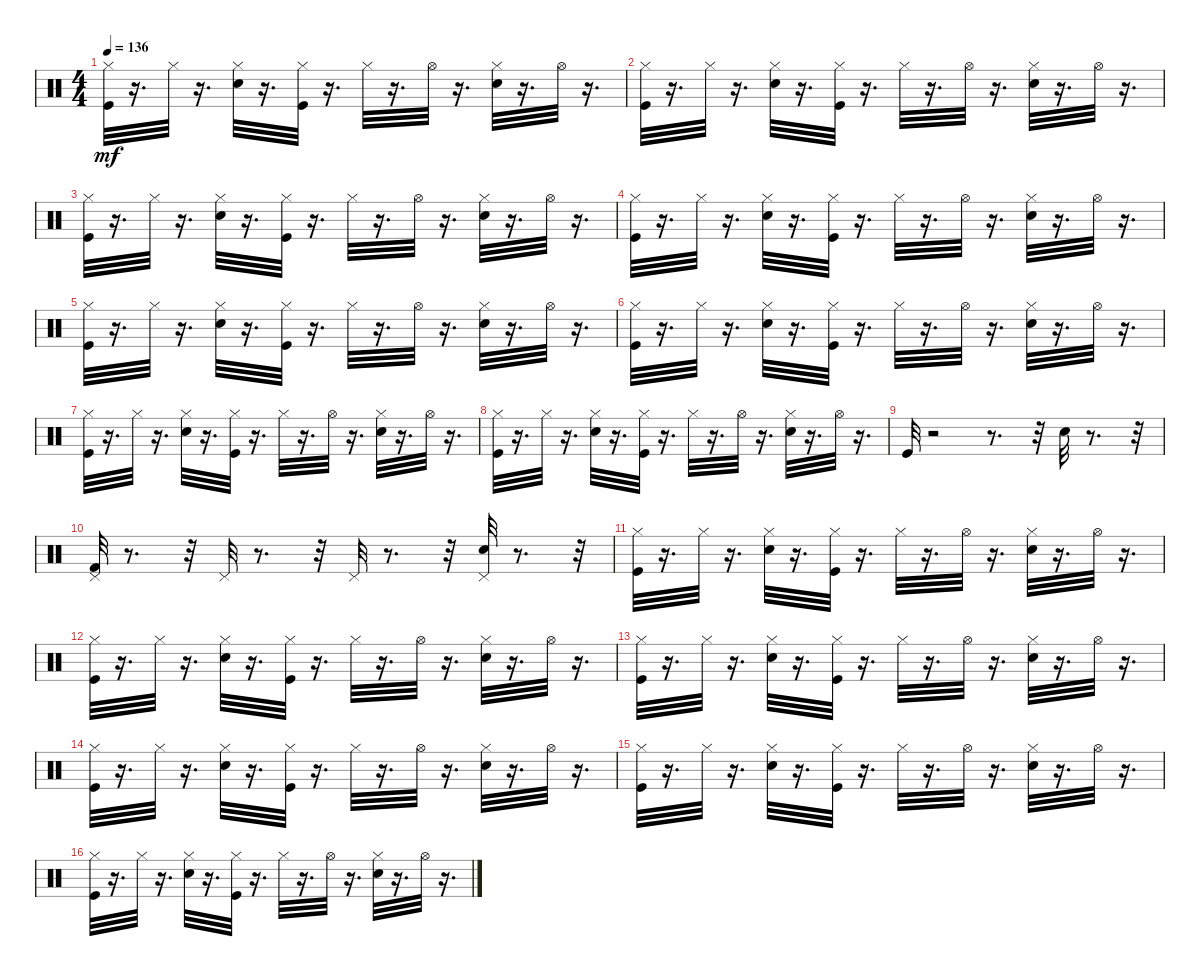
\track "" {instrument percussion}
\staff {score}
\articulation defaults
\ts (4 4)
\tempo 136
\clef neutral
\ks c
("Kick (hit)" "Hi-Hat (closed)").32{dy mf} r.16{d} "Hi-Hat (closed)".32 r.16{d} ("Snare (hit) 2" "Hi-Hat (closed)").32 r.16{d} ("Kick (hit)" "Hi-Hat (closed)").32 r.16{d} "Hi-Hat (closed)".32 r.16{d} "Hi-Hat (open)".32 r.16{d} ("Snare (hit) 2" "Hi-Hat (closed)").32 r.16{d} "Hi-Hat (open)".32 r.16{d} |
("Kick (hit)" "Hi-Hat (closed)").32 r.16{d} "Hi-Hat (closed)".32 r.16{d} ("Snare (hit) 2" "Hi-Hat (closed)").32 r.16{d} ("Kick (hit)" "Hi-Hat (closed)").32 r.16{d} "Hi-Hat (closed)".32 r.16{d} "Hi-Hat (open)".32 r.16{d} ("Snare (hit) 2" "Hi-Hat (closed)").32 r.16{d} "Hi-Hat (open)".32 r.16{d} |
("Kick (hit)" "Hi-Hat (closed)").32 r.16{d} "Hi-Hat (closed)".32 r.16{d} ("Snare (hit) 2" "Hi-Hat (closed)").32 r.16{d} ("Kick (hit)" "Hi-Hat (closed)").32 r.16{d} "Hi-Hat (closed)".32 r.16{d} "Hi-Hat (open)".32 r.16{d} ("Snare (hit) 2" "Hi-Hat (closed)").32 r.16{d} "Hi-Hat (open)".32 r.16{d} |
("Kick (hit)" "Hi-Hat (closed)").32 r.16{d} "Hi-Hat (closed)".32 r.16{d} ("Snare (hit) 2" "Hi-Hat (closed)").32 r.16{d} ("Kick (hit)" "Hi-Hat (closed)").32 r.16{d} "Hi-Hat (closed)".32 r.16{d} "Hi-Hat (open)".32 r.16{d} ("Snare (hit) 2" "Hi-Hat (closed)").32 r.16{d} "Hi-Hat (open)".32 r.16{d} |
("Kick (hit)" "Hi-Hat (closed)").32 r.16{d} "Hi-Hat (closed)".32 r.16{d} ("Snare (hit) 2" "Hi-Hat (closed)").32 r.16{d} ("Kick (hit)" "Hi-Hat (closed)").32 r.16{d} "Hi-Hat (closed)".32 r.16{d} "Hi-Hat (open)".32 r.16{d} ("Snare (hit) 2" "Hi-Hat (closed)").32 r.16{d} "Hi-Hat (open)".32 r.16{d} |
("Kick (hit)" "Hi-Hat (closed)").32 r.16{d} "Hi-Hat (closed)".32 r.16{d} ("Snare (hit) 2" "Hi-Hat (closed)").32 r.16{d} ("Kick (hit)" "Hi-Hat (closed)").32 r.16{d} "Hi-Hat (closed)".32 r.16{d} "Hi-Hat (open)".32 r.16{d} ("Snare (hit) 2" "Hi-Hat (closed)").32 r.16{d} "Hi-Hat (open)".32 r.16{d} |
("Kick (hit)" "Hi-Hat (closed)").32 r.16{d} "Hi-Hat (closed)".32 r.16{d} ("Snare (hit) 2" "Hi-Hat (closed)").32 r.16{d} ("Kick (hit)" "Hi-Hat (closed)").32 r.16{d} "Hi-Hat (closed)".32 r.16{d} "Hi-Hat (open)".32 r.16{d} ("Snare (hit) 2" "Hi-Hat (closed)").32 r.16{d} "Hi-Hat (open)".32 r.16{d} |
("Kick (hit)" "Hi-Hat (closed)").32 r.16{d} "Hi-Hat (closed)".32 r.16{d} ("Snare (hit) 2" "Hi-Hat (closed)").32 r.16{d} ("Kick (hit)" "Hi-Hat (closed)").32 r.16{d} "Hi-Hat (closed)".32 r.16{d} "Hi-Hat (open)".32 r.16{d} ("Snare (hit) 2" "Hi-Hat (closed)").32 r.16{d} "Hi-Hat (open)".32 r.16{d} |
"Kick (hit)".32 r.2 r.8{d} r.32 "Snare (hit) 2".32 r.8{d} r.32 |
("Pedal Hi-Hat (hit)" "Kick (hit) 2").32 r.8{d} r.32 "Pedal Hi-Hat (hit)".32 r.8{d} r.32 "Pedal Hi-Hat (hit)".32 r.8{d} r.32 ("Pedal Hi-Hat (hit)" "Snare (hit) 2").32 r.8{d} r.32 |
("Kick (hit)" "Hi-Hat (closed)").32 r.16{d} "Hi-Hat (closed)".32 r.16{d} ("Snare (hit) 2" "Hi-Hat (closed)").32 r.16{d} ("Kick (hit)" "Hi-Hat (closed)").32 r.16{d} "Hi-Hat (closed)".32 r.16{d} "Hi-Hat (open)".32 r.16{d} ("Snare (hit) 2" "Hi-Hat (closed)").32 r.16{d} "Hi-Hat (open)".32 r.16{d} |
("Kick (hit)" "Hi-Hat (closed)").32 r.16{d} "Hi-Hat (closed)".32 r.16{d} ("Snare (hit) 2" "Hi-Hat (closed)").32 r.16{d} ("Kick (hit)" "Hi-Hat (closed)").32 r.16{d} "Hi-Hat (closed)".32 r.16{d} "Hi-Hat (open)".32 r.16{d} ("Snare (hit) 2" "Hi-Hat (closed)").32 r.16{d} "Hi-Hat (open)".32 r.16{d} |
("Kick (hit)" "Hi-Hat (closed)").32 r.16{d} "Hi-Hat (closed)".32 r.16{d} ("Snare (hit) 2" "Hi-Hat (closed)").32 r.16{d} ("Kick (hit)" "Hi-Hat (closed)").32 r.16{d} "Hi-Hat (closed)".32 r.16{d} "Hi-Hat (open)".32 r.16{d} ("Snare (hit) 2" "Hi-Hat (closed)").32 r.16{d} "Hi-Hat (open)".32 r.16{d} |
("Kick (hit)" "Hi-Hat (closed)").32 r.16{d} "Hi-Hat (closed)".32 r.16{d} ("Snare (hit) 2" "Hi-Hat (closed)").32 r.16{d} ("Kick (hit)" "Hi-Hat (closed)").32 r.16{d} "Hi-Hat (closed)".32 r.16{d} "Hi-Hat (open)".32 r.16{d} ("Snare (hit) 2" "Hi-Hat (closed)").32 r.16{d} "Hi-Hat (open)".32 r.16{d} |
("Kick (hit)" "Hi-Hat (closed)").32 r.16{d} "Hi-Hat (closed)".32 r.16{d} ("Snare (hit) 2" "Hi-Hat (closed)").32 r.16{d} ("Kick (hit)" "Hi-Hat (closed)").32 r.16{d} "Hi-Hat (closed)".32 r.16{d} "Hi-Hat (open)".32 r.16{d} ("Snare (hit) 2" "Hi-Hat (closed)").32 r.16{d} "Hi-Hat (open)".32 r.16{d} |
("Kick (hit)" "Hi-Hat (closed)").32 r.16{d} "Hi-Hat (closed)".32 r.16{d} ("Snare (hit) 2" "Hi-Hat (closed)").32 r.16{d} ("Kick (hit)" "Hi-Hat (closed)").32 r.16{d} "Hi-Hat (closed)".32 r.16{d} "Hi-Hat (open)".32 r.16{d} ("Snare (hit) 2" "Hi-Hat (closed)").32 r.16{d} "Hi-Hat (open)".32 r.16{d}
